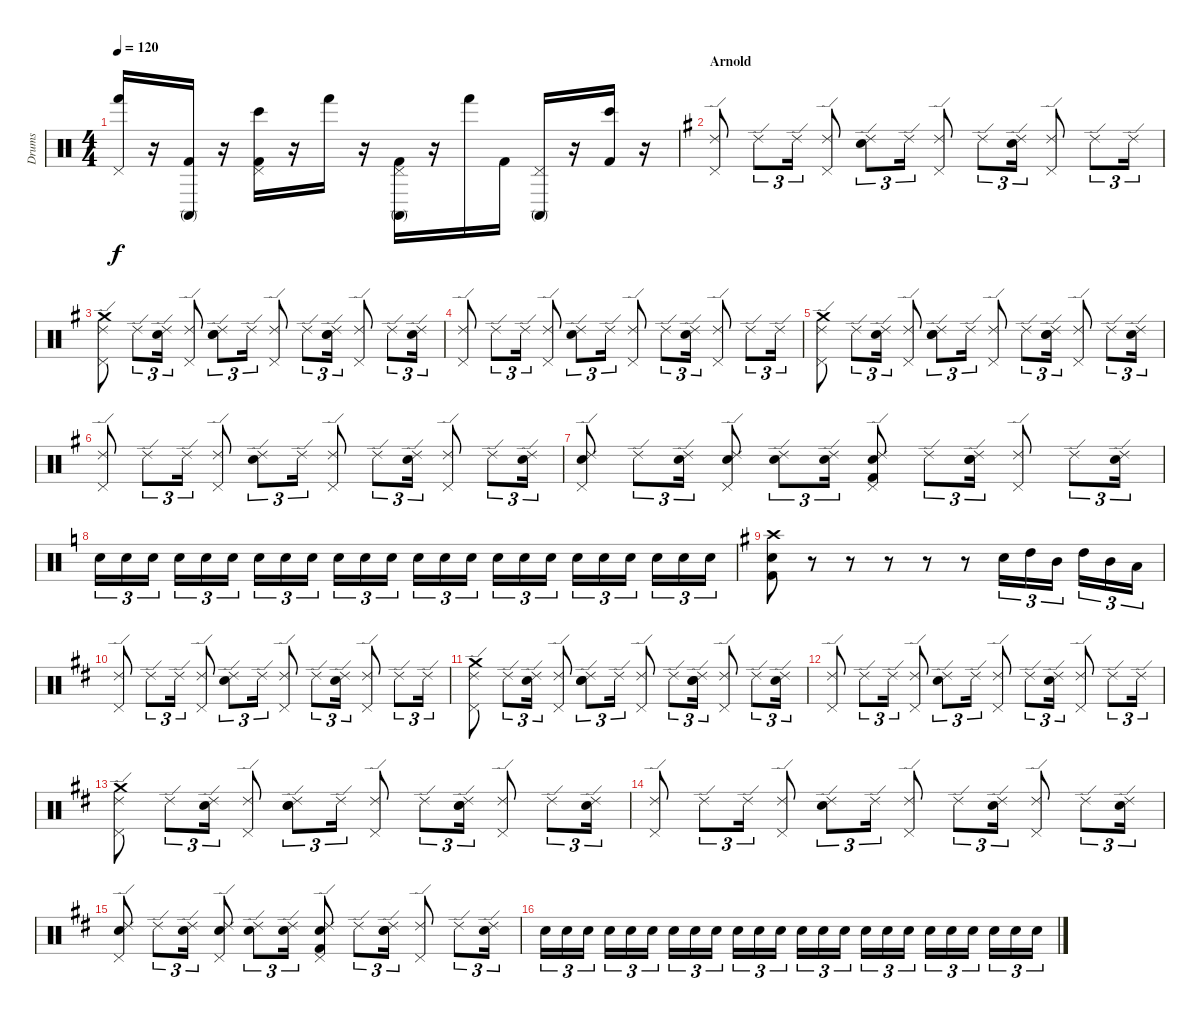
\track ("Drums" "Drums") {instrument percussion}
\staff {score}
\articulation defaults
\ts (4 4)
\tempo 120
\clef neutral
\ks c
("Pedal Hi-Hat (hit)" "Hand (hit)").16{dy f} r.16 ("Conga high (mute)" "Kick (hit) 2").16 r.16 ("Pedal Hi-Hat (hit)" "Bongo High (hit)" "Kick (hit) 2").16 r.16 "Hand (hit)".16 r.16 ("Pedal Hi-Hat (hit)" "Conga high (mute)" "Kick (hit) 2").16 r.16 "Hand (hit)".16 "Kick (hit) 2".16 ("Pedal Hi-Hat (hit)" "Conga high (mute)").16 r.16 ("Bongo High (hit)" "Kick (hit) 2").16 r.16 |
\section ("" "Arnold")
\ks eminor
("Ride (edge) 2" "Pedal Hi-Hat (hit)").8 "Ride (edge) 2".8{tu (3 2)} "Ride (edge) 2".16{tu (3 2)} ("Ride (edge) 2" "Pedal Hi-Hat (hit)").8 ("Ride (edge) 2" "Snare (hit) 2").8{tu (3 2)} "Ride (edge) 2".16{tu (3 2)} ("Ride (edge) 2" "Pedal Hi-Hat (hit)").8 "Ride (edge) 2".8{tu (3 2)} ("Ride (edge) 2" "Snare (hit) 2").16{tu (3 2)} ("Ride (edge) 2" "Pedal Hi-Hat (hit)").8 "Ride (edge) 2".8{tu (3 2)} "Ride (edge) 2".16{tu (3 2)} |
("Ride (edge) 2" "Pedal Hi-Hat (hit)" "Crash medium (hit)").8 "Ride (edge) 2".8{tu (3 2)} ("Ride (edge) 2" "Snare (hit) 2").16{tu (3 2)} ("Ride (edge) 2" "Pedal Hi-Hat (hit)").8 ("Ride (edge) 2" "Snare (hit) 2" "Snare (hit) 2").8{tu (3 2)} "Ride (edge) 2".16{tu (3 2)} ("Ride (edge) 2" "Pedal Hi-Hat (hit)").8 "Ride (edge) 2".8{tu (3 2)} ("Ride (edge) 2" "Snare (hit) 2" "Snare (hit) 2").16{tu (3 2)} ("Ride (edge) 2" "Pedal Hi-Hat (hit)").8 "Ride (edge) 2".8{tu (3 2)} ("Ride (edge) 2" "Snare (hit) 2").16{tu (3 2)} |
("Ride (edge) 2" "Pedal Hi-Hat (hit)").8 "Ride (edge) 2".8{tu (3 2)} "Ride (edge) 2".16{tu (3 2)} ("Ride (edge) 2" "Pedal Hi-Hat (hit)").8 ("Ride (edge) 2" "Snare (hit) 2").8{tu (3 2)} "Ride (edge) 2".16{tu (3 2)} ("Ride (edge) 2" "Pedal Hi-Hat (hit)").8 "Ride (edge) 2".8{tu (3 2)} ("Ride (edge) 2" "Snare (hit) 2").16{tu (3 2)} ("Ride (edge) 2" "Pedal Hi-Hat (hit)").8 "Ride (edge) 2".8{tu (3 2)} "Ride (edge) 2".16{tu (3 2)} |
("Ride (edge) 2" "Pedal Hi-Hat (hit)" "Crash medium (hit)").8 "Ride (edge) 2".8{tu (3 2)} ("Ride (edge) 2" "Snare (hit) 2").16{tu (3 2)} ("Ride (edge) 2" "Pedal Hi-Hat (hit)").8 ("Ride (edge) 2" "Snare (hit) 2" "Snare (hit) 2").8{tu (3 2)} "Ride (edge) 2".16{tu (3 2)} ("Ride (edge) 2" "Pedal Hi-Hat (hit)").8 "Ride (edge) 2".8{tu (3 2)} ("Ride (edge) 2" "Snare (hit) 2" "Snare (hit) 2").16{tu (3 2)} ("Ride (edge) 2" "Pedal Hi-Hat (hit)").8 "Ride (edge) 2".8{tu (3 2)} ("Ride (edge) 2" "Snare (hit) 2").16{tu (3 2)} |
("Ride (edge) 2" "Pedal Hi-Hat (hit)").8 "Ride (edge) 2".8{tu (3 2)} "Ride (edge) 2".16{tu (3 2)} ("Ride (edge) 2" "Pedal Hi-Hat (hit)").8 ("Ride (edge) 2" "Snare (hit) 2").8{tu (3 2)} "Ride (edge) 2".16{tu (3 2)} ("Ride (edge) 2" "Pedal Hi-Hat (hit)").8 "Ride (edge) 2".8{tu (3 2)} ("Ride (edge) 2" "Snare (hit) 2").16{tu (3 2)} ("Ride (edge) 2" "Pedal Hi-Hat (hit)").8 "Ride (edge) 2".8{tu (3 2)} ("Ride (edge) 2" "Snare (hit) 2").16{tu (3 2)} |
("Ride (edge) 2" "Pedal Hi-Hat (hit)" "Snare (hit) 2").8 "Ride (edge) 2".8{tu (3 2)} ("Ride (edge) 2" "Snare (hit) 2").16{tu (3 2)} ("Ride (edge) 2" "Pedal Hi-Hat (hit)" "Snare (hit) 2").8 ("Ride (edge) 2" "Snare (hit) 2").8{tu (3 2)} ("Ride (edge) 2" "Snare (hit) 2").16{tu (3 2)} ("Ride (edge) 2" "Pedal Hi-Hat (hit)" "Electric Snare (hit)" "Kick (hit) 2").8 "Ride (edge) 2".8{tu (3 2)} ("Ride (edge) 2" "Snare (hit) 2" "Snare (hit) 2").16{tu (3 2)} ("Ride (edge) 2" "Pedal Hi-Hat (hit)").8 "Ride (edge) 2".8{tu (3 2)} ("Ride (edge) 2" "Snare (hit) 2").16{tu (3 2)} |
\ks c "Snare (hit) 2".16{tu (3 2)} "Snare (hit) 2".16{tu (3 2)} "Snare (hit) 2".16{tu (3 2)} "Snare (hit) 2".16{tu (3 2)} "Snare (hit) 2".16{tu (3 2)} "Snare (hit) 2".16{tu (3 2)} "Snare (hit) 2".16{tu (3 2)} "Snare (hit) 2".16{tu (3 2)} "Snare (hit) 2".16{tu (3 2)} "Snare (hit) 2".16{tu (3 2)} "Snare (hit) 2".16{tu (3 2)} "Snare (hit) 2".16{tu (3 2)} "Snare (hit) 2".16{tu (3 2)} "Snare (hit) 2".16{tu (3 2)} "Snare (hit) 2".16{tu (3 2)} "Snare (hit) 2".16{tu (3 2)} "Snare (hit) 2".16{tu (3 2)} "Snare (hit) 2".16{tu (3 2)} "Snare (hit) 2".16{tu (3 2)} "Snare (hit) 2".16{tu (3 2)} "Snare (hit) 2".16{tu (3 2)} "Snare (hit) 2".16{tu (3 2)} "Snare (hit) 2".16{tu (3 2)} "Snare (hit) 2".16{tu (3 2)}
|
\ks eminor
("Crash high (hit)" "Electric Snare (hit)" "Kick (hit) 2").8 r.8 r.8 r.8 r.8 r.8 "Electric Snare (hit)".16{tu (3 2)} "High Tom (hit)".16{tu (3 2)} "Mid Tom (hit)".16{tu (3 2)} "High Tom (hit)".16{tu (3 2)} "Mid Tom (hit)".16{tu (3 2)} "Low Tom (hit)".16{tu (3 2)} |
\ks d
("Ride (edge) 2" "Pedal Hi-Hat (hit)").8 "Ride (edge) 2".8{tu (3 2)} "Ride (edge) 2".16{tu (3 2)} ("Ride (edge) 2" "Pedal Hi-Hat (hit)").8 ("Ride (edge) 2" "Snare (hit) 2").8{tu (3 2)} "Ride (edge) 2".16{tu (3 2)} ("Ride (edge) 2" "Pedal Hi-Hat (hit)").8 "Ride (edge) 2".8{tu (3 2)} ("Ride (edge) 2" "Snare (hit) 2").16{tu (3 2)} ("Ride (edge) 2" "Pedal Hi-Hat (hit)").8 "Ride (edge) 2".8{tu (3 2)} "Ride (edge) 2".16{tu (3 2)} |
("Ride (edge) 2" "Pedal Hi-Hat (hit)" "Crash medium (hit)").8 "Ride (edge) 2".8{tu (3 2)} ("Ride (edge) 2" "Snare (hit) 2").16{tu (3 2)} ("Ride (edge) 2" "Pedal Hi-Hat (hit)").8 ("Ride (edge) 2" "Snare (hit) 2" "Snare (hit) 2").8{tu (3 2)} "Ride (edge) 2".16{tu (3 2)} ("Ride (edge) 2" "Pedal Hi-Hat (hit)").8 "Ride (edge) 2".8{tu (3 2)} ("Ride (edge) 2" "Snare (hit) 2" "Snare (hit) 2").16{tu (3 2)} ("Ride (edge) 2" "Pedal Hi-Hat (hit)").8 "Ride (edge) 2".8{tu (3 2)} ("Ride (edge) 2" "Snare (hit) 2").16{tu (3 2)} |
("Ride (edge) 2" "Pedal Hi-Hat (hit)").8 "Ride (edge) 2".8{tu (3 2)} "Ride (edge) 2".16{tu (3 2)} ("Ride (edge) 2" "Pedal Hi-Hat (hit)").8 ("Ride (edge) 2" "Snare (hit) 2").8{tu (3 2)} "Ride (edge) 2".16{tu (3 2)} ("Ride (edge) 2" "Pedal Hi-Hat (hit)").8 "Ride (edge) 2".8{tu (3 2)} ("Ride (edge) 2" "Snare (hit) 2").16{tu (3 2)} ("Ride (edge) 2" "Pedal Hi-Hat (hit)").8 "Ride (edge) 2".8{tu (3 2)} "Ride (edge) 2".16{tu (3 2)} |
("Ride (edge) 2" "Pedal Hi-Hat (hit)" "Crash medium (hit)").8 "Ride (edge) 2".8{tu (3 2)} ("Ride (edge) 2" "Snare (hit) 2").16{tu (3 2)} ("Ride (edge) 2" "Pedal Hi-Hat (hit)").8 ("Ride (edge) 2" "Snare (hit) 2" "Snare (hit) 2").8{tu (3 2)} "Ride (edge) 2".16{tu (3 2)} ("Ride (edge) 2" "Pedal Hi-Hat (hit)").8 "Ride (edge) 2".8{tu (3 2)} ("Ride (edge) 2" "Snare (hit) 2" "Snare (hit) 2").16{tu (3 2)} ("Ride (edge) 2" "Pedal Hi-Hat (hit)").8 "Ride (edge) 2".8{tu (3 2)} ("Ride (edge) 2" "Snare (hit) 2").16{tu (3 2)} |
("Ride (edge) 2" "Pedal Hi-Hat (hit)").8 "Ride (edge) 2".8{tu (3 2)} "Ride (edge) 2".16{tu (3 2)} ("Ride (edge) 2" "Pedal Hi-Hat (hit)").8 ("Ride (edge) 2" "Snare (hit) 2").8{tu (3 2)} "Ride (edge) 2".16{tu (3 2)} ("Ride (edge) 2" "Pedal Hi-Hat (hit)").8 "Ride (edge) 2".8{tu (3 2)} ("Ride (edge) 2" "Snare (hit) 2").16{tu (3 2)} ("Ride (edge) 2" "Pedal Hi-Hat (hit)").8 "Ride (edge) 2".8{tu (3 2)} ("Ride (edge) 2" "Snare (hit) 2").16{tu (3 2)} |
("Ride (edge) 2" "Pedal Hi-Hat (hit)" "Snare (hit) 2").8 "Ride (edge) 2".8{tu (3 2)} ("Ride (edge) 2" "Snare (hit) 2").16{tu (3 2)} ("Ride (edge) 2" "Pedal Hi-Hat (hit)" "Snare (hit) 2").8 ("Ride (edge) 2" "Snare (hit) 2").8{tu (3 2)} ("Ride (edge) 2" "Snare (hit) 2").16{tu (3 2)} ("Ride (edge) 2" "Pedal Hi-Hat (hit)" "Electric Snare (hit)" "Kick (hit) 2").8 "Ride (edge) 2".8{tu (3 2)} ("Ride (edge) 2" "Snare (hit) 2" "Snare (hit) 2").16{tu (3 2)} ("Ride (edge) 2" "Pedal Hi-Hat (hit)").8 "Ride (edge) 2".8{tu (3 2)} ("Ride (edge) 2" "Snare (hit) 2").16{tu (3 2)} |
"Snare (hit) 2".16{tu (3 2)} "Snare (hit) 2".16{tu (3 2)} "Snare (hit) 2".16{tu (3 2)} "Snare (hit) 2".16{tu (3 2)} "Snare (hit) 2".16{tu (3 2)} "Snare (hit) 2".16{tu (3 2)} "Snare (hit) 2".16{tu (3 2)} "Snare (hit) 2".16{tu (3 2)} "Snare (hit) 2".16{tu (3 2)} "Snare (hit) 2".16{tu (3 2)} "Snare (hit) 2".16{tu (3 2)} "Snare (hit) 2".16{tu (3 2)} "Snare (hit) 2".16{tu (3 2)} "Snare (hit) 2".16{tu (3 2)} "Snare (hit) 2".16{tu (3 2)} "Snare (hit) 2".16{tu (3 2)} "Snare (hit) 2".16{tu (3 2)} "Snare (hit) 2".16{tu (3 2)} "Snare (hit) 2".16{tu (3 2)} "Snare (hit) 2".16{tu (3 2)} "Snare (hit) 2".16{tu (3 2)} "Snare (hit) 2".16{tu (3 2)} "Snare (hit) 2".16{tu (3 2)} "Snare (hit) 2".16{tu (3 2)}
